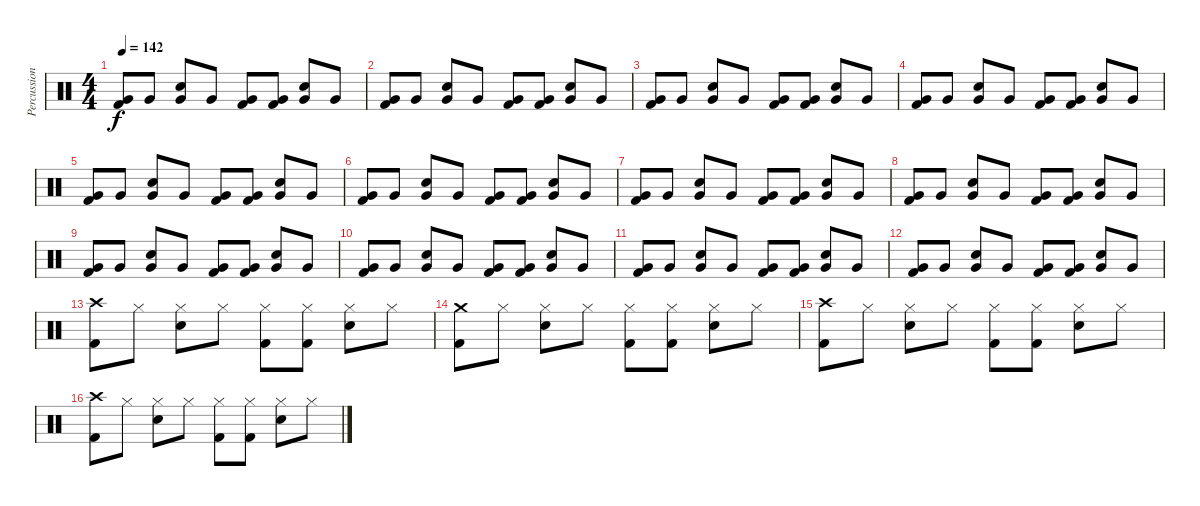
\track ("Percussion" "Percussion") {instrument percussion}
\staff {score}
\articulation defaults
\ts (4 4)
\tempo 142
\clef neutral
\ks c
("Very Low Tom (hit)" "Kick (hit) 2").8{dy f} "Very Low Tom (hit)".8 ("Very Low Tom (hit)" "Electric Snare (hit)").8 "Very Low Tom (hit)".8 ("Very Low Tom (hit)" "Kick (hit) 2").8 ("Very Low Tom (hit)" "Kick (hit) 2").8 ("Very Low Tom (hit)" "Electric Snare (hit)").8 "Very Low Tom (hit)".8 |
("Very Low Tom (hit)" "Kick (hit) 2").8 "Very Low Tom (hit)".8 ("Very Low Tom (hit)" "Electric Snare (hit)").8 "Very Low Tom (hit)".8 ("Very Low Tom (hit)" "Kick (hit) 2").8 ("Very Low Tom (hit)" "Kick (hit) 2").8 ("Very Low Tom (hit)" "Electric Snare (hit)").8 "Very Low Tom (hit)".8 |
("Very Low Tom (hit)" "Kick (hit) 2").8 "Very Low Tom (hit)".8 ("Very Low Tom (hit)" "Electric Snare (hit)").8 "Very Low Tom (hit)".8 ("Very Low Tom (hit)" "Kick (hit) 2").8 ("Very Low Tom (hit)" "Kick (hit) 2").8 ("Very Low Tom (hit)" "Electric Snare (hit)").8 "Very Low Tom (hit)".8 |
("Very Low Tom (hit)" "Kick (hit) 2").8 "Very Low Tom (hit)".8 ("Very Low Tom (hit)" "Electric Snare (hit)").8 "Very Low Tom (hit)".8 ("Very Low Tom (hit)" "Kick (hit) 2").8 ("Very Low Tom (hit)" "Kick (hit) 2").8 ("Very Low Tom (hit)" "Electric Snare (hit)").8 "Very Low Tom (hit)".8 |
("Very Low Tom (hit)" "Kick (hit) 2").8 "Very Low Tom (hit)".8 ("Very Low Tom (hit)" "Electric Snare (hit)").8 "Very Low Tom (hit)".8 ("Very Low Tom (hit)" "Kick (hit) 2").8 ("Very Low Tom (hit)" "Kick (hit) 2").8 ("Very Low Tom (hit)" "Electric Snare (hit)").8 "Very Low Tom (hit)".8 |
("Very Low Tom (hit)" "Kick (hit) 2").8 "Very Low Tom (hit)".8 ("Very Low Tom (hit)" "Electric Snare (hit)").8 "Very Low Tom (hit)".8 ("Very Low Tom (hit)" "Kick (hit) 2").8 ("Very Low Tom (hit)" "Kick (hit) 2").8 ("Very Low Tom (hit)" "Electric Snare (hit)").8 "Very Low Tom (hit)".8 |
("Very Low Tom (hit)" "Kick (hit) 2").8 "Very Low Tom (hit)".8 ("Very Low Tom (hit)" "Electric Snare (hit)").8 "Very Low Tom (hit)".8 ("Very Low Tom (hit)" "Kick (hit) 2").8 ("Very Low Tom (hit)" "Kick (hit) 2").8 ("Very Low Tom (hit)" "Electric Snare (hit)").8 "Very Low Tom (hit)".8 |
("Very Low Tom (hit)" "Kick (hit) 2").8 "Very Low Tom (hit)".8 ("Very Low Tom (hit)" "Electric Snare (hit)").8 "Very Low Tom (hit)".8 ("Very Low Tom (hit)" "Kick (hit) 2").8 ("Very Low Tom (hit)" "Kick (hit) 2").8 ("Very Low Tom (hit)" "Electric Snare (hit)").8 "Very Low Tom (hit)".8 |
("Very Low Tom (hit)" "Kick (hit) 2").8 "Very Low Tom (hit)".8 ("Very Low Tom (hit)" "Electric Snare (hit)").8 "Very Low Tom (hit)".8 ("Very Low Tom (hit)" "Kick (hit) 2").8 ("Very Low Tom (hit)" "Kick (hit) 2").8 ("Very Low Tom (hit)" "Electric Snare (hit)").8 "Very Low Tom (hit)".8 |
("Very Low Tom (hit)" "Kick (hit) 2").8 "Very Low Tom (hit)".8 ("Very Low Tom (hit)" "Electric Snare (hit)").8 "Very Low Tom (hit)".8 ("Very Low Tom (hit)" "Kick (hit) 2").8 ("Very Low Tom (hit)" "Kick (hit) 2").8 ("Very Low Tom (hit)" "Electric Snare (hit)").8 "Very Low Tom (hit)".8 |
("Very Low Tom (hit)" "Kick (hit) 2").8 "Very Low Tom (hit)".8 ("Very Low Tom (hit)" "Electric Snare (hit)").8 "Very Low Tom (hit)".8 ("Very Low Tom (hit)" "Kick (hit) 2").8 ("Very Low Tom (hit)" "Kick (hit) 2").8 ("Very Low Tom (hit)" "Electric Snare (hit)").8 "Very Low Tom (hit)".8 |
("Very Low Tom (hit)" "Kick (hit) 2").8 "Very Low Tom (hit)".8 ("Very Low Tom (hit)" "Electric Snare (hit)").8 "Very Low Tom (hit)".8 ("Very Low Tom (hit)" "Kick (hit) 2").8 ("Very Low Tom (hit)" "Kick (hit) 2").8 ("Very Low Tom (hit)" "Electric Snare (hit)").8 "Very Low Tom (hit)".8 |
("Crash high (hit)" "Kick (hit) 2").8 "Hi-Hat (closed)".8 ("Hi-Hat (closed)" "Electric Snare (hit)").8 "Hi-Hat (closed)".8 ("Hi-Hat (closed)" "Kick (hit) 2").8 ("Hi-Hat (closed)" "Kick (hit) 2").8 ("Hi-Hat (closed)" "Electric Snare (hit)").8 "Hi-Hat (closed)".8 |
("Crash medium (hit)" "Kick (hit) 2").8 "Hi-Hat (closed)".8 ("Hi-Hat (closed)" "Electric Snare (hit)").8 "Hi-Hat (closed)".8 ("Hi-Hat (closed)" "Kick (hit) 2").8 ("Hi-Hat (closed)" "Kick (hit) 2").8 ("Hi-Hat (closed)" "Electric Snare (hit)").8 "Hi-Hat (closed)".8 |
("Crash high (hit)" "Kick (hit) 2").8 "Hi-Hat (closed)".8 ("Hi-Hat (closed)" "Electric Snare (hit)").8 "Hi-Hat (closed)".8 ("Hi-Hat (closed)" "Kick (hit) 2").8 ("Hi-Hat (closed)" "Kick (hit) 2").8 ("Hi-Hat (closed)" "Electric Snare (hit)").8 "Hi-Hat (closed)".8 |
("Crash high (hit)" "Kick (hit) 2").8 "Hi-Hat (closed)".8 ("Hi-Hat (closed)" "Electric Snare (hit)").8 "Hi-Hat (closed)".8 ("Hi-Hat (closed)" "Kick (hit) 2").8 ("Hi-Hat (closed)" "Kick (hit) 2").8 ("Hi-Hat (closed)" "Electric Snare (hit)").8 "Hi-Hat (closed)".8
